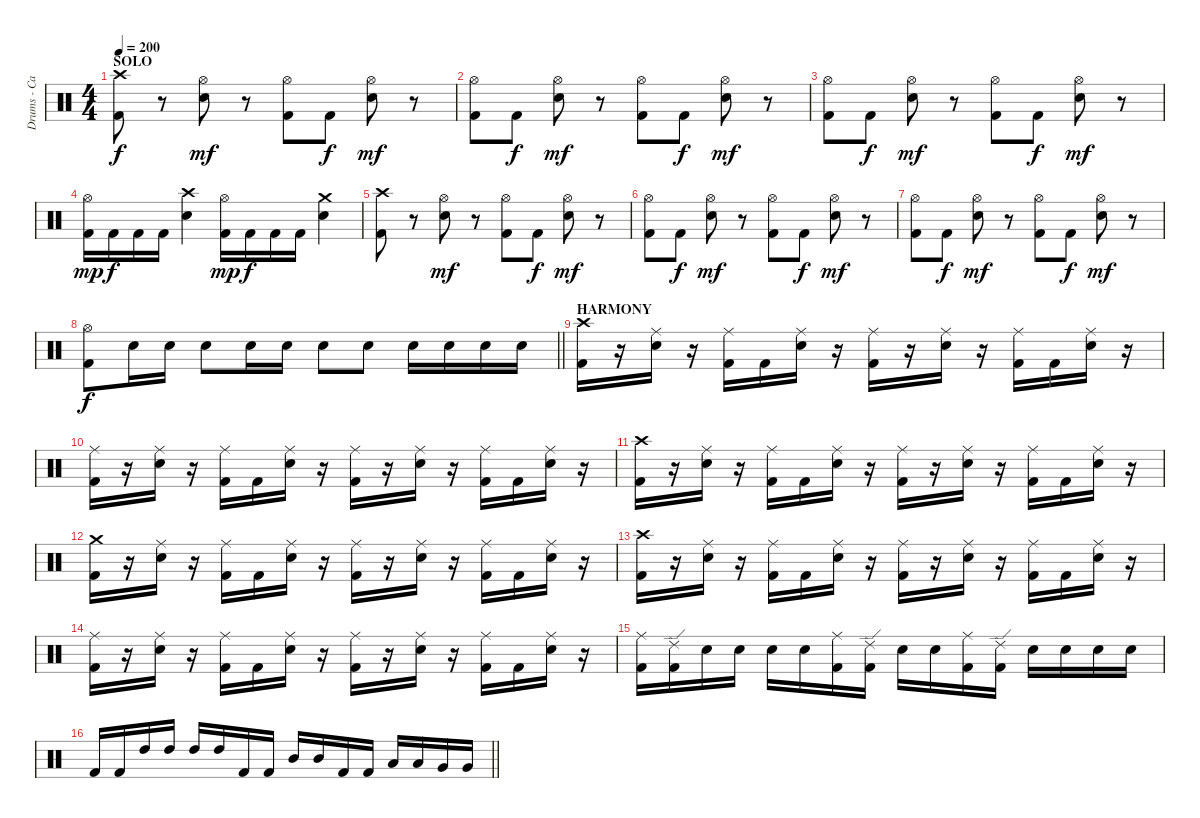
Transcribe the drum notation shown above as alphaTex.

\track ("Drums - Carlos Cruz" "Drums - Ca") {instrument percussion}
\staff {score}
\articulation defaults
\ts (4 4)
\section ("" "SOLO")
\tempo 200
\clef neutral
\ks c
("Crash high (hit)" "Kick (hit) 2").8{dy f} r.8 ("Hi-Hat (open)" "Snare (hit) 2").8{dy mf} r.8 ("Hi-Hat (open)" "Kick (hit) 2").8 "Kick (hit) 2".8{dy f} ("Hi-Hat (open)" "Snare (hit) 2").8{dy mf} r.8 |
("Hi-Hat (open)" "Kick (hit) 2").8 "Kick (hit) 2".8{dy f} ("Hi-Hat (open)" "Snare (hit) 2").8{dy mf} r.8 ("Hi-Hat (open)" "Kick (hit) 2").8 "Kick (hit) 2".8{dy f} ("Hi-Hat (open)" "Snare (hit) 2").8{dy mf} r.8 |
("Hi-Hat (open)" "Kick (hit) 2").8 "Kick (hit) 2".8{dy f} ("Hi-Hat (open)" "Snare (hit) 2").8{dy mf} r.8 ("Hi-Hat (open)" "Kick (hit) 2").8 "Kick (hit) 2".8{dy f} ("Hi-Hat (open)" "Snare (hit) 2").8{dy mf} r.8 |
("Hi-Hat (open)" "Kick (hit) 2").16{dy mp} "Kick (hit) 2".16{dy f} "Kick (hit) 2".16 "Kick (hit) 2".16 ("Crash high (hit)" "Snare (hit) 2").4 ("Hi-Hat (open)" "Kick (hit) 2").16{dy mp} "Kick (hit) 2".16{dy f} "Kick (hit) 2".16 "Kick (hit) 2".16 ("Crash medium (hit)" "Snare (hit) 2").4 |
("Crash high (hit)" "Kick (hit) 2").8 r.8 ("Hi-Hat (open)" "Snare (hit) 2").8{dy mf} r.8 ("Hi-Hat (open)" "Kick (hit) 2").8 "Kick (hit) 2".8{dy f} ("Hi-Hat (open)" "Snare (hit) 2").8{dy mf} r.8 |
("Hi-Hat (open)" "Kick (hit) 2").8 "Kick (hit) 2".8{dy f} ("Hi-Hat (open)" "Snare (hit) 2").8{dy mf} r.8 ("Hi-Hat (open)" "Kick (hit) 2").8 "Kick (hit) 2".8{dy f} ("Hi-Hat (open)" "Snare (hit) 2").8{dy mf} r.8 |
("Hi-Hat (open)" "Kick (hit) 2").8 "Kick (hit) 2".8{dy f} ("Hi-Hat (open)" "Snare (hit) 2").8{dy mf} r.8 ("Hi-Hat (open)" "Kick (hit) 2").8 "Kick (hit) 2".8{dy f} ("Hi-Hat (open)" "Snare (hit) 2").8{dy mf} r.8 |
\barLineRight lightlight
("Hi-Hat (open)" "Kick (hit) 2").8{dy f} "Snare (hit) 2".16 "Snare (hit) 2".16 "Snare (hit) 2".8 "Snare (hit) 2".16 "Snare (hit) 2".16 "Snare (hit) 2".8 "Snare (hit) 2".8 "Snare (hit) 2".16 "Snare (hit) 2".16 "Snare (hit) 2".16 "Snare (hit) 2".16 |
\section ("" "HARMONY")
("Crash high (hit)" "Kick (hit) 2").16 r.16 ("Ride (middle)" "Snare (hit) 2").16 r.16 ("Ride (middle)" "Kick (hit) 2").16 "Kick (hit) 2".16 ("Ride (middle)" "Snare (hit) 2").16 r.16 ("Ride (middle)" "Kick (hit) 2").16 r.16 ("Ride (middle)" "Snare (hit) 2").16 r.16 ("Ride (middle)" "Kick (hit) 2").16 "Kick (hit) 2".16 ("Ride (middle)" "Snare (hit) 2").16 r.16 |
("Ride (middle)" "Kick (hit) 2").16 r.16 ("Ride (middle)" "Snare (hit) 2").16 r.16 ("Ride (middle)" "Kick (hit) 2").16 "Kick (hit) 2".16 ("Ride (middle)" "Snare (hit) 2").16 r.16 ("Ride (middle)" "Kick (hit) 2").16 r.16 ("Ride (middle)" "Snare (hit) 2").16 r.16 ("Ride (middle)" "Kick (hit) 2").16 "Kick (hit) 2".16 ("Ride (middle)" "Snare (hit) 2").16 r.16 |
("Crash high (hit)" "Kick (hit) 2").16 r.16 ("Ride (middle)" "Snare (hit) 2").16 r.16 ("Ride (middle)" "Kick (hit) 2").16 "Kick (hit) 2".16 ("Ride (middle)" "Snare (hit) 2").16 r.16 ("Ride (middle)" "Kick (hit) 2").16 r.16 ("Ride (middle)" "Snare (hit) 2").16 r.16 ("Ride (middle)" "Kick (hit) 2").16 "Kick (hit) 2".16 ("Ride (middle)" "Snare (hit) 2").16 r.16 |
("Crash medium (hit)" "Kick (hit) 2").16 r.16 ("Ride (middle)" "Snare (hit) 2").16 r.16 ("Ride (middle)" "Kick (hit) 2").16 "Kick (hit) 2".16 ("Ride (middle)" "Snare (hit) 2").16 r.16 ("Ride (middle)" "Kick (hit) 2").16 r.16 ("Ride (middle)" "Snare (hit) 2").16 r.16 ("Ride (middle)" "Kick (hit) 2").16 "Kick (hit) 2".16 ("Ride (middle)" "Snare (hit) 2").16 r.16 |
("Crash high (hit)" "Kick (hit) 2").16 r.16 ("Ride (middle)" "Snare (hit) 2").16 r.16 ("Ride (middle)" "Kick (hit) 2").16 "Kick (hit) 2".16 ("Ride (middle)" "Snare (hit) 2").16 r.16 ("Ride (middle)" "Kick (hit) 2").16 r.16 ("Ride (middle)" "Snare (hit) 2").16 r.16 ("Ride (middle)" "Kick (hit) 2").16 "Kick (hit) 2".16 ("Ride (middle)" "Snare (hit) 2").16 r.16 |
("Ride (middle)" "Kick (hit) 2").16 r.16 ("Ride (middle)" "Snare (hit) 2").16 r.16 ("Ride (middle)" "Kick (hit) 2").16 "Kick (hit) 2".16 ("Ride (middle)" "Snare (hit) 2").16 r.16 ("Ride (middle)" "Kick (hit) 2").16 r.16 ("Ride (middle)" "Snare (hit) 2").16 r.16 ("Ride (middle)" "Kick (hit) 2").16 "Kick (hit) 2".16 ("Ride (middle)" "Snare (hit) 2").16 r.16 |
("Ride (middle)" "Kick (hit) 2").16 ("Ride (edge) 2" "Kick (hit) 2").16 "Snare (hit) 2".16 "Snare (hit) 2".16 "Snare (hit) 2".16 "Snare (hit) 2".16 ("Ride (middle)" "Kick (hit) 2").16 ("Ride (edge) 2" "Kick (hit) 2").16 "Snare (hit) 2".16 "Snare (hit) 2".16 ("Ride (middle)" "Kick (hit) 2").16 ("Ride (edge) 2" "Kick (hit) 2").16 "Snare (hit) 2".16 "Snare (hit) 2".16 "Snare (hit) 2".16 "Snare (hit) 2".16 |
\barLineRight lightlight "Kick (hit) 2".16 "Kick (hit) 2".16 "High Tom (hit)".16 "High Tom (hit)".16 "High Tom (hit)".16 "High Tom (hit)".16 "Kick (hit) 2".16 "Kick (hit) 2".16 "Mid Tom (hit)".16 "Mid Tom (hit)".16 "Kick (hit) 2".16 "Kick (hit) 2".16 "Low Tom (hit)".16 "Low Tom (hit)".16 "Very Low Tom (hit)".16 "Very Low Tom (hit)".16
